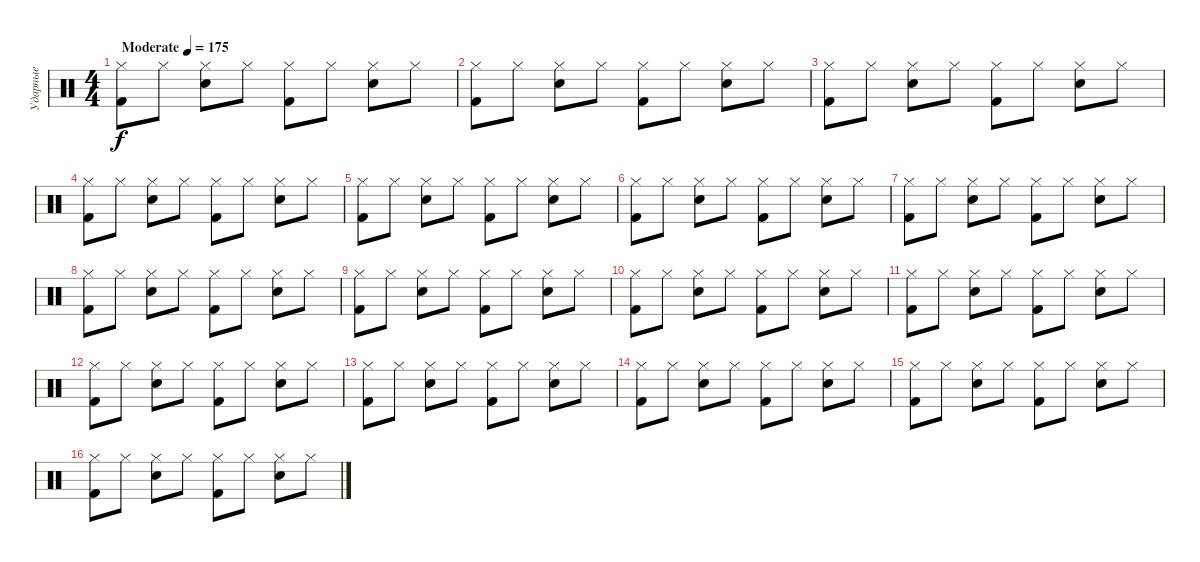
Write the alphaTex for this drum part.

\track ("Ударные" "Ударные") {instrument percussion}
\staff {score}
\articulation defaults
\ts (4 4)
\tempo (175 "Moderate")
\clef neutral
\ks c
("Kick (hit) 2" "Hi-Hat (closed)").8{dy f} "Hi-Hat (closed)".8 ("Snare (hit) 2" "Hi-Hat (closed)").8 "Hi-Hat (closed)".8 ("Kick (hit) 2" "Hi-Hat (closed)").8 "Hi-Hat (closed)".8 ("Snare (hit) 2" "Hi-Hat (closed)").8 "Hi-Hat (closed)".8 |
("Kick (hit) 2" "Hi-Hat (closed)").8 "Hi-Hat (closed)".8 ("Snare (hit) 2" "Hi-Hat (closed)").8 "Hi-Hat (closed)".8 ("Kick (hit) 2" "Hi-Hat (closed)").8 "Hi-Hat (closed)".8 ("Snare (hit) 2" "Hi-Hat (closed)").8 "Hi-Hat (closed)".8 |
("Kick (hit) 2" "Hi-Hat (closed)").8 "Hi-Hat (closed)".8 ("Snare (hit) 2" "Hi-Hat (closed)").8 "Hi-Hat (closed)".8 ("Kick (hit) 2" "Hi-Hat (closed)").8 "Hi-Hat (closed)".8 ("Snare (hit) 2" "Hi-Hat (closed)").8 "Hi-Hat (closed)".8 |
("Kick (hit) 2" "Hi-Hat (closed)").8 "Hi-Hat (closed)".8 ("Snare (hit) 2" "Hi-Hat (closed)").8 "Hi-Hat (closed)".8 ("Kick (hit) 2" "Hi-Hat (closed)").8 "Hi-Hat (closed)".8 ("Snare (hit) 2" "Hi-Hat (closed)").8 "Hi-Hat (closed)".8 |
("Kick (hit) 2" "Hi-Hat (closed)").8 "Hi-Hat (closed)".8 ("Snare (hit) 2" "Hi-Hat (closed)").8 "Hi-Hat (closed)".8 ("Kick (hit) 2" "Hi-Hat (closed)").8 "Hi-Hat (closed)".8 ("Snare (hit) 2" "Hi-Hat (closed)").8 "Hi-Hat (closed)".8 |
("Kick (hit) 2" "Hi-Hat (closed)").8 "Hi-Hat (closed)".8 ("Snare (hit) 2" "Hi-Hat (closed)").8 "Hi-Hat (closed)".8 ("Kick (hit) 2" "Hi-Hat (closed)").8 "Hi-Hat (closed)".8 ("Snare (hit) 2" "Hi-Hat (closed)").8 "Hi-Hat (closed)".8 |
("Kick (hit) 2" "Hi-Hat (closed)").8 "Hi-Hat (closed)".8 ("Snare (hit) 2" "Hi-Hat (closed)").8 "Hi-Hat (closed)".8 ("Kick (hit) 2" "Hi-Hat (closed)").8 "Hi-Hat (closed)".8 ("Snare (hit) 2" "Hi-Hat (closed)").8 "Hi-Hat (closed)".8 |
("Kick (hit) 2" "Hi-Hat (closed)").8 "Hi-Hat (closed)".8 ("Snare (hit) 2" "Hi-Hat (closed)").8 "Hi-Hat (closed)".8 ("Kick (hit) 2" "Hi-Hat (closed)").8 "Hi-Hat (closed)".8 ("Snare (hit) 2" "Hi-Hat (closed)").8 "Hi-Hat (closed)".8 |
("Kick (hit) 2" "Hi-Hat (closed)").8 "Hi-Hat (closed)".8 ("Snare (hit) 2" "Hi-Hat (closed)").8 "Hi-Hat (closed)".8 ("Kick (hit) 2" "Hi-Hat (closed)").8 "Hi-Hat (closed)".8 ("Snare (hit) 2" "Hi-Hat (closed)").8 "Hi-Hat (closed)".8 |
("Kick (hit) 2" "Hi-Hat (closed)").8 "Hi-Hat (closed)".8 ("Snare (hit) 2" "Hi-Hat (closed)").8 "Hi-Hat (closed)".8 ("Kick (hit) 2" "Hi-Hat (closed)").8 "Hi-Hat (closed)".8 ("Snare (hit) 2" "Hi-Hat (closed)").8 "Hi-Hat (closed)".8 |
("Kick (hit) 2" "Hi-Hat (closed)").8 "Hi-Hat (closed)".8 ("Snare (hit) 2" "Hi-Hat (closed)").8 "Hi-Hat (closed)".8 ("Kick (hit) 2" "Hi-Hat (closed)").8 "Hi-Hat (closed)".8 ("Snare (hit) 2" "Hi-Hat (closed)").8 "Hi-Hat (closed)".8 |
("Kick (hit) 2" "Hi-Hat (closed)").8 "Hi-Hat (closed)".8 ("Snare (hit) 2" "Hi-Hat (closed)").8 "Hi-Hat (closed)".8 ("Kick (hit) 2" "Hi-Hat (closed)").8 "Hi-Hat (closed)".8 ("Snare (hit) 2" "Hi-Hat (closed)").8 "Hi-Hat (closed)".8 |
("Kick (hit) 2" "Hi-Hat (closed)").8 "Hi-Hat (closed)".8 ("Snare (hit) 2" "Hi-Hat (closed)").8 "Hi-Hat (closed)".8 ("Kick (hit) 2" "Hi-Hat (closed)").8 "Hi-Hat (closed)".8 ("Snare (hit) 2" "Hi-Hat (closed)").8 "Hi-Hat (closed)".8 |
("Kick (hit) 2" "Hi-Hat (closed)").8 "Hi-Hat (closed)".8 ("Snare (hit) 2" "Hi-Hat (closed)").8 "Hi-Hat (closed)".8 ("Kick (hit) 2" "Hi-Hat (closed)").8 "Hi-Hat (closed)".8 ("Snare (hit) 2" "Hi-Hat (closed)").8 "Hi-Hat (closed)".8 |
("Kick (hit) 2" "Hi-Hat (closed)").8 "Hi-Hat (closed)".8 ("Snare (hit) 2" "Hi-Hat (closed)").8 "Hi-Hat (closed)".8 ("Kick (hit) 2" "Hi-Hat (closed)").8 "Hi-Hat (closed)".8 ("Snare (hit) 2" "Hi-Hat (closed)").8 "Hi-Hat (closed)".8 |
("Kick (hit) 2" "Hi-Hat (closed)").8 "Hi-Hat (closed)".8 ("Snare (hit) 2" "Hi-Hat (closed)").8 "Hi-Hat (closed)".8 ("Kick (hit) 2" "Hi-Hat (closed)").8 "Hi-Hat (closed)".8 ("Snare (hit) 2" "Hi-Hat (closed)").8 "Hi-Hat (closed)".8
